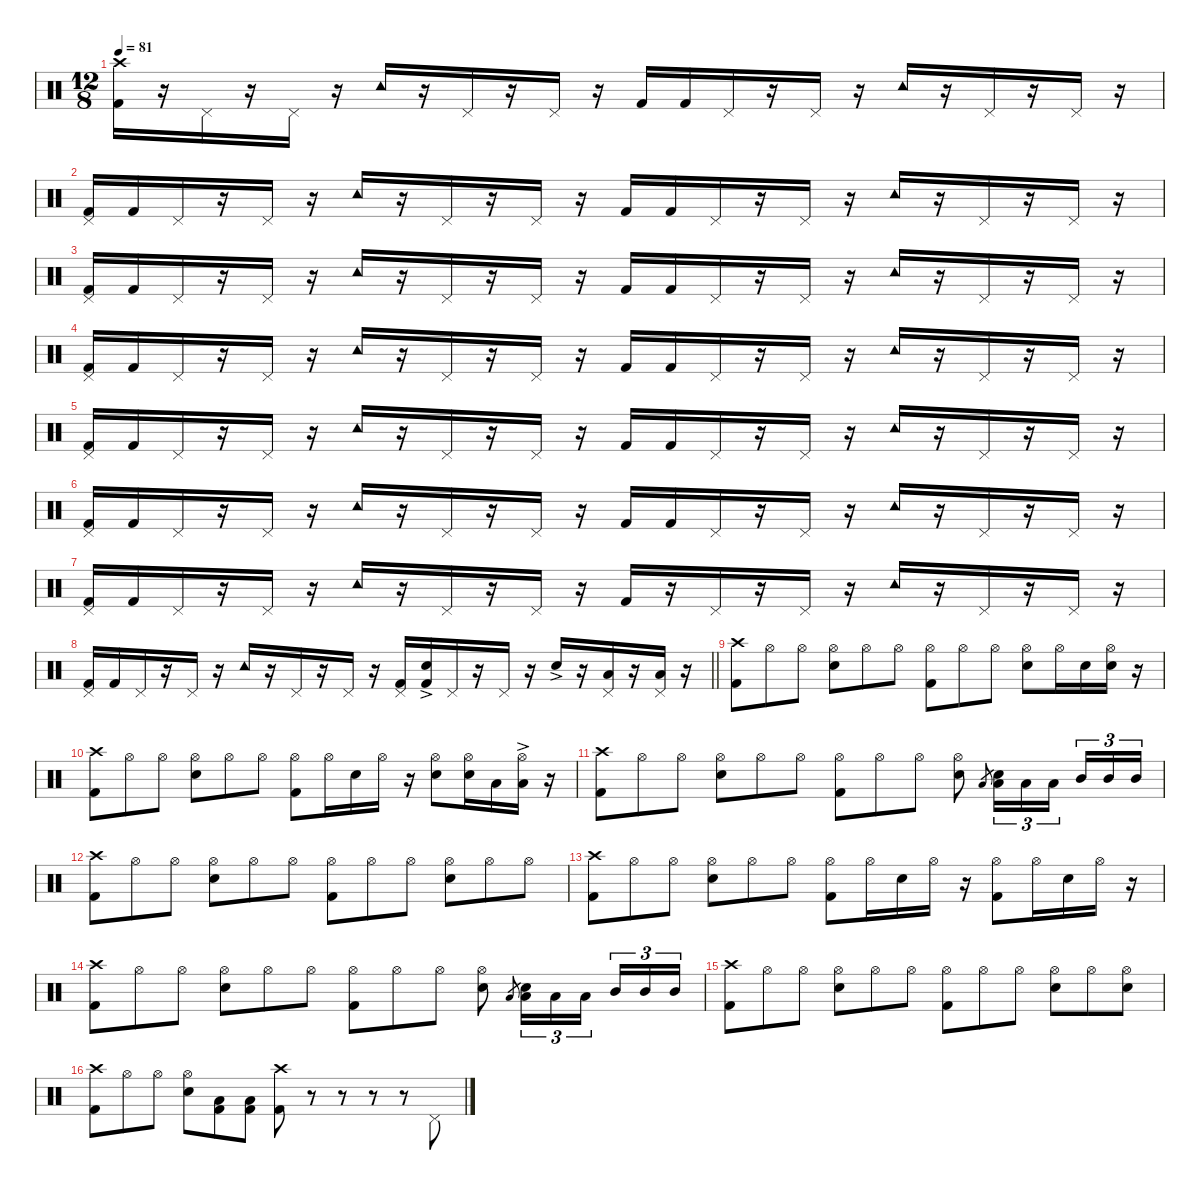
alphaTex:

\defaultSystemsLayout 4
\hideDynamics
\bracketExtendMode nobrackets
\singleTrackTrackNamePolicy hidden
\multiTrackTrackNamePolicy hidden
\firstSystemTrackNameMode fullname
\otherSystemsTrackNameOrientation horizontal
\track ("DRUMS" "drm.") {instrument percussion}
\staff {score}
\articulation defaults
\ts (12 8)
\tempo 81
\clef neutral
\ks c
("Crash high (hit)" "Kick (hit) 2").16{dy ff beam Down} r.16{beam Down} "Pedal Hi-Hat (hit)".16{dy mp beam Down} r.16{beam Down} "Pedal Hi-Hat (hit)".16{dy mf beam Down} r.16{beam Down} "Tambourine (hit)".16{dy f beam Up} r.16{beam Up} "Pedal Hi-Hat (hit)".16{dy mf beam Up} r.16{beam Up} "Pedal Hi-Hat (hit)".16{beam Up} r.16{beam Up} "Kick (hit) 2".16{dy f beam Up} "Kick (hit) 2".16{dy ff beam Up} "Pedal Hi-Hat (hit)".16{dy mf beam Up} r.16{beam Up} "Pedal Hi-Hat (hit)".16{beam Up} r.16{beam Up} "Tambourine (hit)".16{dy f beam Up} r.16{beam Up} "Pedal Hi-Hat (hit)".16{dy mf beam Up} r.16{beam Up} "Pedal Hi-Hat (hit)".16{beam Up} r.16{beam Up} |
("Pedal Hi-Hat (hit)" "Kick (hit) 2").16{beam Up} "Kick (hit) 2".16{dy f beam Up} "Pedal Hi-Hat (hit)".16{dy mf beam Up} r.16{beam Up} "Pedal Hi-Hat (hit)".16{beam Up} r.16{beam Up} "Tambourine (hit)".16{dy ff beam Up} r.16{beam Up} "Pedal Hi-Hat (hit)".16{dy mf beam Up} r.16{beam Up} "Pedal Hi-Hat (hit)".16{beam Up} r.16{beam Up} "Kick (hit) 2".16{dy f beam Up} "Kick (hit) 2".16{dy ff beam Up} "Pedal Hi-Hat (hit)".16{dy mf beam Up} r.16{beam Up} "Pedal Hi-Hat (hit)".16{beam Up} r.16{beam Up} "Tambourine (hit)".16{dy ff beam Up} r.16{beam Up} "Pedal Hi-Hat (hit)".16{dy mf beam Up} r.16{beam Up} "Pedal Hi-Hat (hit)".16{beam Up} r.16{beam Up} |
("Pedal Hi-Hat (hit)" "Kick (hit) 2").16{beam Up} "Kick (hit) 2".16{dy f beam Up} "Pedal Hi-Hat (hit)".16{dy mf beam Up} r.16{beam Up} "Pedal Hi-Hat (hit)".16{beam Up} r.16{beam Up} "Tambourine (hit)".16{dy ff beam Up} r.16{beam Up} "Pedal Hi-Hat (hit)".16{dy mf beam Up} r.16{beam Up} "Pedal Hi-Hat (hit)".16{beam Up} r.16{beam Up} "Kick (hit) 2".16{dy f beam Up} "Kick (hit) 2".16{dy ff beam Up} "Pedal Hi-Hat (hit)".16{dy mf beam Up} r.16{beam Up} "Pedal Hi-Hat (hit)".16{beam Up} r.16{beam Up} "Tambourine (hit)".16{dy ff beam Up} r.16{beam Up} "Pedal Hi-Hat (hit)".16{dy mf beam Up} r.16{beam Up} "Pedal Hi-Hat (hit)".16{beam Up} r.16{beam Up} |
("Pedal Hi-Hat (hit)" "Kick (hit) 2").16{beam Up} "Kick (hit) 2".16{dy f beam Up} "Pedal Hi-Hat (hit)".16{dy mf beam Up} r.16{beam Up} "Pedal Hi-Hat (hit)".16{beam Up} r.16{beam Up} "Tambourine (hit)".16{dy ff beam Up} r.16{beam Up} "Pedal Hi-Hat (hit)".16{dy mf beam Up} r.16{beam Up} "Pedal Hi-Hat (hit)".16{beam Up} r.16{beam Up} "Kick (hit) 2".16{dy f beam Up} "Kick (hit) 2".16{dy ff beam Up} "Pedal Hi-Hat (hit)".16{dy mf beam Up} r.16{beam Up} "Pedal Hi-Hat (hit)".16{beam Up} r.16{beam Up} "Tambourine (hit)".16{dy ff beam Up} r.16{beam Up} "Pedal Hi-Hat (hit)".16{dy mf beam Up} r.16{beam Up} "Pedal Hi-Hat (hit)".16{beam Up} r.16{beam Up} |
("Pedal Hi-Hat (hit)" "Kick (hit) 2").16{beam Up} "Kick (hit) 2".16{dy f beam Up} "Pedal Hi-Hat (hit)".16{dy mf beam Up} r.16{beam Up} "Pedal Hi-Hat (hit)".16{beam Up} r.16{beam Up} "Tambourine (hit)".16{dy ff beam Up} r.16{beam Up} "Pedal Hi-Hat (hit)".16{dy mf beam Up} r.16{beam Up} "Pedal Hi-Hat (hit)".16{beam Up} r.16{beam Up} "Kick (hit) 2".16{dy f beam Up} "Kick (hit) 2".16{dy ff beam Up} "Pedal Hi-Hat (hit)".16{dy mf beam Up} r.16{beam Up} "Pedal Hi-Hat (hit)".16{beam Up} r.16{beam Up} "Tambourine (hit)".16{dy ff beam Up} r.16{beam Up} "Pedal Hi-Hat (hit)".16{dy mf beam Up} r.16{beam Up} "Pedal Hi-Hat (hit)".16{beam Up} r.16{beam Up} |
("Pedal Hi-Hat (hit)" "Kick (hit) 2").16{beam Up} "Kick (hit) 2".16{dy f beam Up} "Pedal Hi-Hat (hit)".16{dy mf beam Up} r.16{beam Up} "Pedal Hi-Hat (hit)".16{beam Up} r.16{beam Up} "Tambourine (hit)".16{dy ff beam Up} r.16{beam Up} "Pedal Hi-Hat (hit)".16{dy mf beam Up} r.16{beam Up} "Pedal Hi-Hat (hit)".16{beam Up} r.16{beam Up} "Kick (hit) 2".16{dy f beam Up} "Kick (hit) 2".16{dy ff beam Up} "Pedal Hi-Hat (hit)".16{dy mf beam Up} r.16{beam Up} "Pedal Hi-Hat (hit)".16{beam Up} r.16{beam Up} "Tambourine (hit)".16{dy ff beam Up} r.16{beam Up} "Pedal Hi-Hat (hit)".16{dy mf beam Up} r.16{beam Up} "Pedal Hi-Hat (hit)".16{beam Up} r.16{beam Up} |
("Pedal Hi-Hat (hit)" "Kick (hit) 2").16{beam Up} "Kick (hit) 2".16{dy f beam Up} "Pedal Hi-Hat (hit)".16{dy mf beam Up} r.16{beam Up} "Pedal Hi-Hat (hit)".16{beam Up} r.16{beam Up} "Tambourine (hit)".16{dy ff beam Up} r.16{beam Up} "Pedal Hi-Hat (hit)".16{dy mf beam Up} r.16{beam Up} "Pedal Hi-Hat (hit)".16{beam Up} r.16{beam Up} "Kick (hit) 2".16{dy f beam Up} r.16{beam Up} "Pedal Hi-Hat (hit)".16{dy mf beam Up} r.16{beam Up} "Pedal Hi-Hat (hit)".16{beam Up} r.16{beam Up} "Tambourine (hit)".16{dy ff beam Up} r.16{beam Up} "Pedal Hi-Hat (hit)".16{dy mf beam Up} r.16{beam Up} "Pedal Hi-Hat (hit)".16{beam Up} r.16{beam Up} |
\barLineRight lightlight
("Pedal Hi-Hat (hit)" "Kick (hit) 2").16{beam Up} "Kick (hit) 2".16{dy f beam Up} "Pedal Hi-Hat (hit)".16{dy mf beam Up} r.16{beam Up} "Pedal Hi-Hat (hit)".16{beam Up} r.16{beam Up} "Tambourine (hit)".16{dy ff beam Up} r.16{beam Up} "Pedal Hi-Hat (hit)".16{dy mf beam Up} r.16{beam Up} "Pedal Hi-Hat (hit)".16{beam Up} r.16{beam Up} ("Pedal Hi-Hat (hit)" "Kick (hit) 2").16{beam Up} ("Snare (hit) 2"{ac} "Kick (hit) 2").16{dy f beam Up} "Pedal Hi-Hat (hit)".16{dy mf beam Up} r.16{beam Up} "Pedal Hi-Hat (hit)".16{beam Up} r.16{beam Up} "Snare (hit) 2"{ac}.16{dy ff beam Up} r.16{beam Up} ("Pedal Hi-Hat (hit)" "Low Tom (hit)").16{dy mf beam Up} r.16{beam Up} ("Pedal Hi-Hat (hit)" "Low Tom (hit)").16{beam Up} r.16{beam Up} |
("Crash high (hit)" "Kick (hit) 2").8{dy f beam Down} "Hi-Hat (open)".8{dy mf beam Down} "Hi-Hat (open)".8{beam Down} ("Snare (hit) 2" "Hi-Hat (open)").8{dy ff beam Down} "Hi-Hat (open)".8{dy mf beam Down} "Hi-Hat (open)".8{beam Down} ("Hi-Hat (open)" "Kick (hit) 2").8{beam Down} "Hi-Hat (open)".8{beam Down} "Hi-Hat (open)".8{beam Down} ("Snare (hit) 2" "Hi-Hat (open)").8{dy ff beam Down} "Hi-Hat (open)".16{dy mf beam Down} "Snare (hit) 2".16{dy f beam Down} ("Hi-Hat (open)" "Snare (hit) 2").16{dy mf beam Down} r.16{beam Down} |
("Crash high (hit)" "Kick (hit) 2").8{dy f beam Down} "Hi-Hat (open)".8{dy mf beam Down} "Hi-Hat (open)".8{beam Down} ("Snare (hit) 2" "Hi-Hat (open)").8{dy ff beam Down} "Hi-Hat (open)".8{dy mf beam Down} "Hi-Hat (open)".8{beam Down} ("Hi-Hat (open)" "Kick (hit) 2").8{beam Down} "Hi-Hat (open)".16{beam Down} "Snare (hit) 2".16{dy ff beam Down} "Hi-Hat (open)".16{dy mf beam Down} r.16{beam Down} ("Snare (hit) 2" "Hi-Hat (open)").8{dy ff beam Down} ("Hi-Hat (open)" "Snare (hit) 2").16{dy mf beam Down} "Low Tom (hit)".16{dy ff beam Down} ("Hi-Hat (open)" "Low Tom (hit)"{ac}).16{dy mf beam Down} r.16{beam Down} |
("Crash high (hit)" "Kick (hit) 2").8{dy f beam Down} "Hi-Hat (open)".8{dy mf beam Down} "Hi-Hat (open)".8{beam Down} ("Snare (hit) 2" "Hi-Hat (open)").8{dy ff beam Down} "Hi-Hat (open)".8{dy mf beam Down} "Hi-Hat (open)".8{beam Down} ("Hi-Hat (open)" "Kick (hit) 2").8{beam Down} "Hi-Hat (open)".8{beam Down} "Hi-Hat (open)".8{beam Down} ("Hi-Hat (open)" "Snare (hit) 2").8{dy f beam Down} "Low Tom (hit)".8{gr beam Up} ("Snare (hit) 2" "Low Tom (hit)").16{tu (3 2) dy ff beam Down} "Low Tom (hit)".16{tu (3 2) dy f beam Down} "Low Tom (hit)".16{tu (3 2) beam Down} "Mid Tom (hit)".16{tu (3 2) dy ff beam Up} "Mid Tom (hit)".16{tu (3 2) dy f beam Up} "Mid Tom (hit)".16{tu (3 2) beam Up} |
("Crash high (hit)" "Kick (hit) 2").8{beam Down} "Hi-Hat (open)".8{dy mf beam Down} "Hi-Hat (open)".8{beam Down} ("Snare (hit) 2" "Hi-Hat (open)").8{dy ff beam Down} "Hi-Hat (open)".8{dy mf beam Down} "Hi-Hat (open)".8{beam Down} ("Hi-Hat (open)" "Kick (hit) 2").8{beam Down} "Hi-Hat (open)".8{beam Down} "Hi-Hat (open)".8{beam Down} ("Snare (hit) 2" "Hi-Hat (open)").8{dy ff beam Down} "Hi-Hat (open)".8{dy mf beam Down} "Hi-Hat (open)".8{beam Down} |
("Crash high (hit)" "Kick (hit) 2").8{dy f beam Down} "Hi-Hat (open)".8{dy mf beam Down} "Hi-Hat (open)".8{beam Down} ("Snare (hit) 2" "Hi-Hat (open)").8{dy ff beam Down} "Hi-Hat (open)".8{dy mf beam Down} "Hi-Hat (open)".8{beam Down} ("Hi-Hat (open)" "Kick (hit) 2").8{beam Down} "Hi-Hat (open)".16{beam Down} "Snare (hit) 2".16{dy ff beam Down} "Hi-Hat (open)".16{dy mf beam Down} r.16{beam Down} ("Hi-Hat (open)" "Kick (hit) 2").8{beam Down} "Hi-Hat (open)".16{beam Down} "Snare (hit) 2".16{dy ff beam Down} "Hi-Hat (open)".16{dy mf beam Down} r.16{beam Down} |
("Crash high (hit)" "Kick (hit) 2").8{dy f beam Down} "Hi-Hat (open)".8{dy mf beam Down} "Hi-Hat (open)".8{beam Down} ("Snare (hit) 2" "Hi-Hat (open)").8{dy ff beam Down} "Hi-Hat (open)".8{dy mf beam Down} "Hi-Hat (open)".8{beam Down} ("Hi-Hat (open)" "Kick (hit) 2").8{beam Down} "Hi-Hat (open)".8{beam Down} "Hi-Hat (open)".8{beam Down} ("Hi-Hat (open)" "Snare (hit) 2").8{dy f beam Down} "Low Tom (hit)".8{gr beam Up} ("Snare (hit) 2" "Low Tom (hit)").16{tu (3 2) dy ff beam Down} "Low Tom (hit)".16{tu (3 2) dy f beam Down} "Low Tom (hit)".16{tu (3 2) beam Down} "Mid Tom (hit)".16{tu (3 2) dy ff beam Up} "Mid Tom (hit)".16{tu (3 2) dy f beam Up} "Mid Tom (hit)".16{tu (3 2) beam Up} |
("Crash high (hit)" "Kick (hit) 2").8{beam Down} "Hi-Hat (open)".8{dy mf beam Down} "Hi-Hat (open)".8{beam Down} ("Snare (hit) 2" "Hi-Hat (open)").8{dy ff beam Down} "Hi-Hat (open)".8{dy mf beam Down} "Hi-Hat (open)".8{beam Down} ("Hi-Hat (open)" "Kick (hit) 2").8{beam Down} "Hi-Hat (open)".8{beam Down} "Hi-Hat (open)".8{beam Down} ("Snare (hit) 2" "Hi-Hat (open)").8{dy ff beam Down} "Hi-Hat (open)".8{dy mf beam Down} ("Snare (hit) 2" "Hi-Hat (open)").8{dy f beam Down} |
("Crash high (hit)" "Kick (hit) 2").8{beam Down} "Hi-Hat (open)".8{dy mf beam Down} "Hi-Hat (open)".8{beam Down} ("Snare (hit) 2" "Hi-Hat (open)").8{dy ff beam Down} ("Low Tom (hit)" "Kick (hit) 2").8{beam Down} ("Low Tom (hit)" "Kick (hit) 2").8{beam Down} ("Crash high (hit)" "Kick (hit) 2").8{beam Down} r.8{beam Down} r.8{beam Down} r.8{beam Down} r.8{beam Down} "Pedal Hi-Hat (hit)".8{dy fff beam Up}
